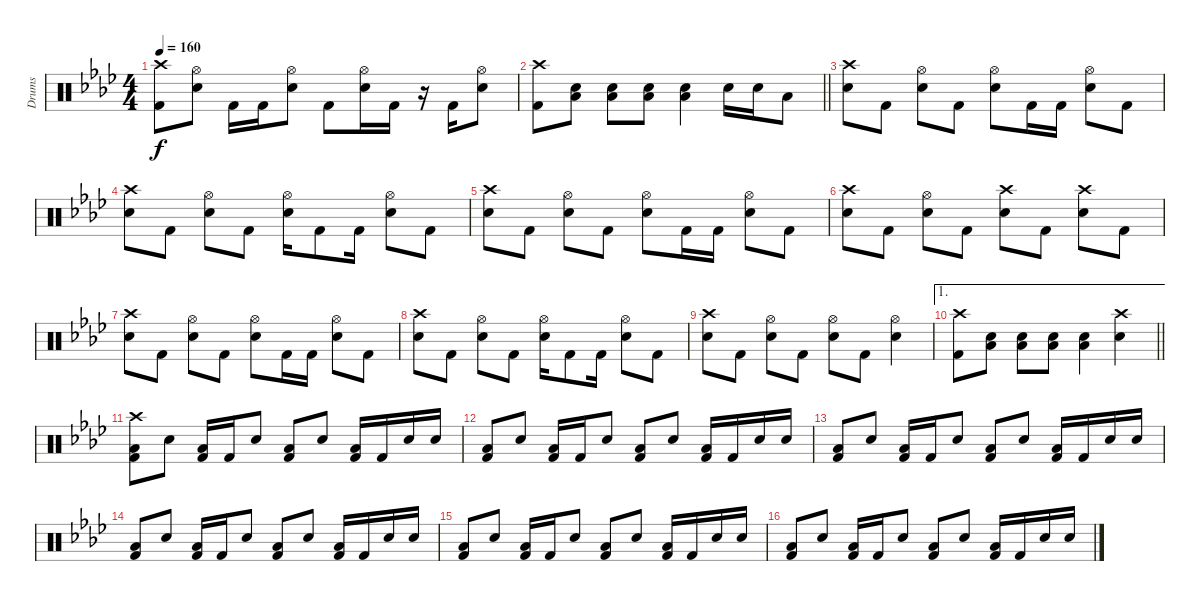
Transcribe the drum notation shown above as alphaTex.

\track ("Drums" "Drums") {instrument percussion}
\staff {score}
\articulation defaults
\ts (4 4)
\tempo 160
\clef neutral
\ks ab
("Crash high (hit)" "Kick (hit) 2").8{dy f} ("Hi-Hat (open)" "Electric Snare (hit)").8 "Kick (hit) 2".16 "Kick (hit) 2".16 ("Hi-Hat (open)" "Electric Snare (hit)").8 "Kick (hit) 2".8 ("Hi-Hat (open)" "Electric Snare (hit)").16 "Kick (hit) 2".16 r.16 "Kick (hit) 2".16 ("Hi-Hat (open)" "Electric Snare (hit)").8 |
\barLineRight lightlight
("Crash high (hit)" "Kick (hit) 2").8 ("Electric Snare (hit)" "Low Floor Tom (hit)").8 ("Electric Snare (hit)" "Low Floor Tom (hit)").8 ("Electric Snare (hit)" "Low Floor Tom (hit)").8 ("Electric Snare (hit)" "Low Floor Tom (hit)").4 "Electric Snare (hit)".16 "Electric Snare (hit)".16 "Low Floor Tom (hit)".8 |
("Crash high (hit)" "Electric Snare (hit)").8 "Kick (hit) 2".8 ("Hi-Hat (open)" "Electric Snare (hit)").8 "Kick (hit) 2".8 ("Hi-Hat (open)" "Electric Snare (hit)").8 "Kick (hit) 2".16 "Kick (hit) 2".16 ("Hi-Hat (open)" "Electric Snare (hit)").8 "Kick (hit) 2".8 |
("Crash high (hit)" "Electric Snare (hit)").8 "Kick (hit) 2".8 ("Hi-Hat (open)" "Electric Snare (hit)").8 "Kick (hit) 2".8 ("Hi-Hat (open)" "Electric Snare (hit)").16 "Kick (hit) 2".8 "Kick (hit) 2".16 ("Hi-Hat (open)" "Electric Snare (hit)").8 "Kick (hit) 2".8 |
("Crash high (hit)" "Electric Snare (hit)").8 "Kick (hit) 2".8 ("Hi-Hat (open)" "Electric Snare (hit)").8 "Kick (hit) 2".8 ("Hi-Hat (open)" "Electric Snare (hit)").8 "Kick (hit) 2".16 "Kick (hit) 2".16 ("Hi-Hat (open)" "Electric Snare (hit)").8 "Kick (hit) 2".8 |
("Crash high (hit)" "Electric Snare (hit)").8 "Kick (hit) 2".8 ("Hi-Hat (open)" "Electric Snare (hit)").8 "Kick (hit) 2".8 ("Crash high (hit)" "Electric Snare (hit)").8 "Kick (hit) 2".8 ("Crash high (hit)" "Electric Snare (hit)").8 "Kick (hit) 2".8 |
("Crash high (hit)" "Electric Snare (hit)").8 "Kick (hit) 2".8 ("Hi-Hat (open)" "Electric Snare (hit)").8 "Kick (hit) 2".8 ("Hi-Hat (open)" "Electric Snare (hit)").8 "Kick (hit) 2".16 "Kick (hit) 2".16 ("Hi-Hat (open)" "Electric Snare (hit)").8 "Kick (hit) 2".8 |
("Crash high (hit)" "Electric Snare (hit)").8 "Kick (hit) 2".8 ("Hi-Hat (open)" "Electric Snare (hit)").8 "Kick (hit) 2".8 ("Hi-Hat (open)" "Electric Snare (hit)").16 "Kick (hit) 2".8 "Kick (hit) 2".16 ("Hi-Hat (open)" "Electric Snare (hit)").8 "Kick (hit) 2".8 |
("Crash high (hit)" "Electric Snare (hit)").8 "Kick (hit) 2".8 ("Hi-Hat (open)" "Electric Snare (hit)").8 "Kick (hit) 2".8 ("Hi-Hat (open)" "Electric Snare (hit)").8 "Kick (hit) 2".8 ("Hi-Hat (open)" "Electric Snare (hit)").4 |
\ae 1
\barLineRight lightlight
("Crash high (hit)" "Kick (hit) 2").8 ("Electric Snare (hit)" "Low Floor Tom (hit)").8 ("Electric Snare (hit)" "Low Floor Tom (hit)").8 ("Electric Snare (hit)" "Low Floor Tom (hit)").8 ("Electric Snare (hit)" "Low Floor Tom (hit)").4 ("Crash high (hit)" "Electric Snare (hit)").4 |
("Crash high (hit)" "Low Floor Tom (hit)" "Kick (hit) 2").8 "Electric Snare (hit)".8 ("Low Floor Tom (hit)" "Kick (hit) 2").16 "Kick (hit) 2".16 "Electric Snare (hit)".8 ("Low Floor Tom (hit)" "Kick (hit) 2").8 "Electric Snare (hit)".8 ("Low Floor Tom (hit)" "Kick (hit) 2").16 "Kick (hit) 2".16 "Electric Snare (hit)".16 "Electric Snare (hit)".16 |
("Low Floor Tom (hit)" "Kick (hit) 2").8 "Electric Snare (hit)".8 ("Low Floor Tom (hit)" "Kick (hit) 2").16 "Kick (hit) 2".16 "Electric Snare (hit)".8 ("Low Floor Tom (hit)" "Kick (hit) 2").8 "Electric Snare (hit)".8 ("Low Floor Tom (hit)" "Kick (hit) 2").16 "Kick (hit) 2".16 "Electric Snare (hit)".16 "Electric Snare (hit)".16 |
("Low Floor Tom (hit)" "Kick (hit) 2").8 "Electric Snare (hit)".8 ("Low Floor Tom (hit)" "Kick (hit) 2").16 "Kick (hit) 2".16 "Electric Snare (hit)".8 ("Low Floor Tom (hit)" "Kick (hit) 2").8 "Electric Snare (hit)".8 ("Low Floor Tom (hit)" "Kick (hit) 2").16 "Kick (hit) 2".16 "Electric Snare (hit)".16 "Electric Snare (hit)".16 |
("Low Floor Tom (hit)" "Kick (hit) 2").8 "Electric Snare (hit)".8 ("Low Floor Tom (hit)" "Kick (hit) 2").16 "Kick (hit) 2".16 "Electric Snare (hit)".8 ("Low Floor Tom (hit)" "Kick (hit) 2").8 "Electric Snare (hit)".8 ("Low Floor Tom (hit)" "Kick (hit) 2").16 "Kick (hit) 2".16 "Electric Snare (hit)".16 "Electric Snare (hit)".16 |
("Low Floor Tom (hit)" "Kick (hit) 2").8 "Electric Snare (hit)".8 ("Low Floor Tom (hit)" "Kick (hit) 2").16 "Kick (hit) 2".16 "Electric Snare (hit)".8 ("Low Floor Tom (hit)" "Kick (hit) 2").8 "Electric Snare (hit)".8 ("Low Floor Tom (hit)" "Kick (hit) 2").16 "Kick (hit) 2".16 "Electric Snare (hit)".16 "Electric Snare (hit)".16 |
("Low Floor Tom (hit)" "Kick (hit) 2").8 "Electric Snare (hit)".8 ("Low Floor Tom (hit)" "Kick (hit) 2").16 "Kick (hit) 2".16 "Electric Snare (hit)".8 ("Low Floor Tom (hit)" "Kick (hit) 2").8 "Electric Snare (hit)".8 ("Low Floor Tom (hit)" "Kick (hit) 2").16 "Kick (hit) 2".16 "Electric Snare (hit)".16 "Electric Snare (hit)".16
